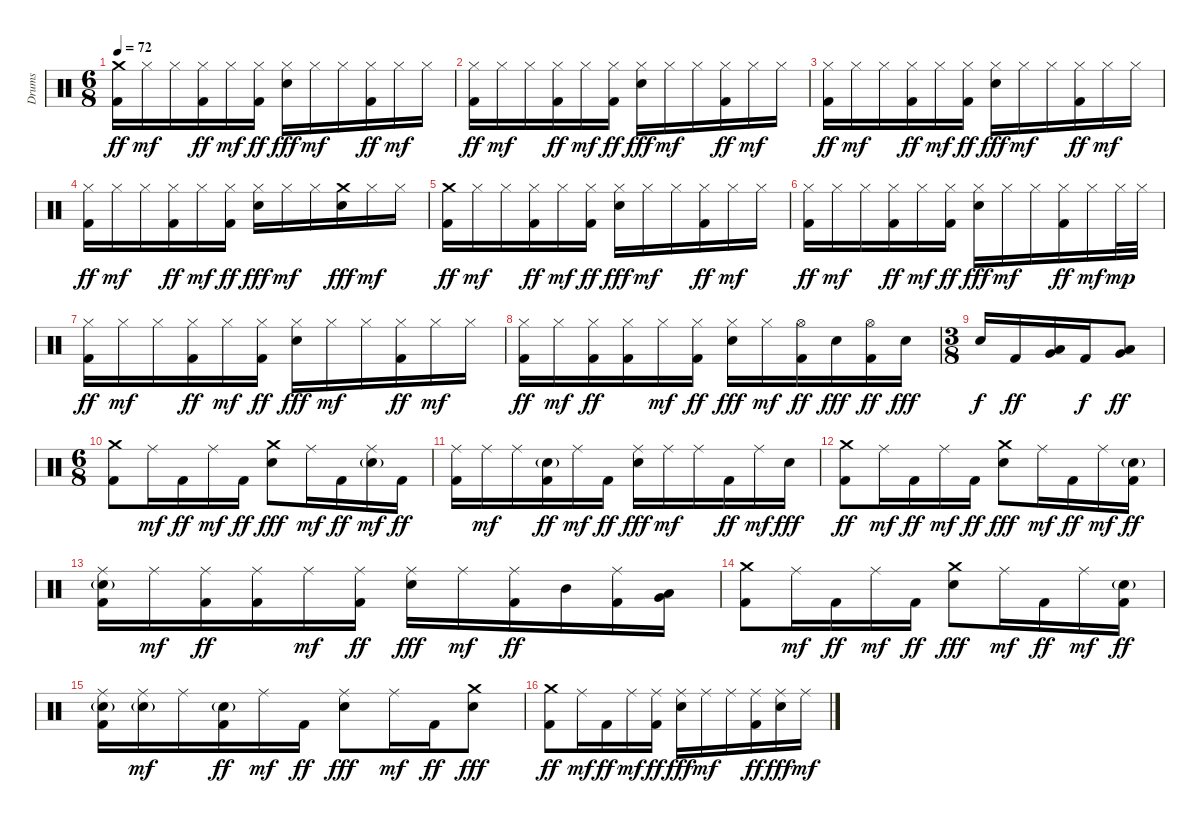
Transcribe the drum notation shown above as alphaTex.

\track ("Drums" "Drums") {instrument percussion}
\staff {score}
\articulation defaults
\ts (6 8)
\tempo 72
\clef neutral
\ks c
("Crash medium (hit)" "Kick (hit) 2").16{dy ff} "Hi-Hat (closed)".16{dy mf} "Hi-Hat (closed)".16 ("Hi-Hat (closed)" "Kick (hit) 2").16{dy ff} "Hi-Hat (closed)".16{dy mf} ("Hi-Hat (closed)" "Kick (hit) 2").16{dy ff} ("Hi-Hat (closed)" "Snare (hit) 2").16{dy fff} "Hi-Hat (closed)".16{dy mf} "Hi-Hat (closed)".16 ("Hi-Hat (closed)" "Kick (hit) 2").16{dy ff} "Hi-Hat (closed)".16{dy mf} "Hi-Hat (closed)".16 |
("Hi-Hat (closed)" "Kick (hit) 2").16{dy ff} "Hi-Hat (closed)".16{dy mf} "Hi-Hat (closed)".16 ("Hi-Hat (closed)" "Kick (hit) 2").16{dy ff} "Hi-Hat (closed)".16{dy mf} ("Hi-Hat (closed)" "Kick (hit) 2").16{dy ff} ("Hi-Hat (closed)" "Snare (hit) 2").16{dy fff} "Hi-Hat (closed)".16{dy mf} "Hi-Hat (closed)".16 ("Hi-Hat (closed)" "Kick (hit) 2").16{dy ff} "Hi-Hat (closed)".16{dy mf} "Hi-Hat (closed)".16 |
("Hi-Hat (closed)" "Kick (hit) 2").16{dy ff} "Hi-Hat (closed)".16{dy mf} "Hi-Hat (closed)".16 ("Hi-Hat (closed)" "Kick (hit) 2").16{dy ff} "Hi-Hat (closed)".16{dy mf} ("Hi-Hat (closed)" "Kick (hit) 2").16{dy ff} ("Hi-Hat (closed)" "Snare (hit) 2").16{dy fff} "Hi-Hat (closed)".16{dy mf} "Hi-Hat (closed)".16 ("Hi-Hat (closed)" "Kick (hit) 2").16{dy ff} "Hi-Hat (closed)".16{dy mf} "Hi-Hat (closed)".16 |
("Hi-Hat (closed)" "Kick (hit) 2").16{dy ff} "Hi-Hat (closed)".16{dy mf} "Hi-Hat (closed)".16 ("Hi-Hat (closed)" "Kick (hit) 2").16{dy ff} "Hi-Hat (closed)".16{dy mf} ("Hi-Hat (closed)" "Kick (hit) 2").16{dy ff} ("Hi-Hat (closed)" "Snare (hit) 2").16{dy fff} "Hi-Hat (closed)".16{dy mf} "Hi-Hat (closed)".16 ("Crash medium (hit)" "Snare (hit) 2").16{dy fff} "Hi-Hat (closed)".16{dy mf} "Hi-Hat (closed)".16 |
("Crash medium (hit)" "Kick (hit) 2").16{dy ff} "Hi-Hat (closed)".16{dy mf} "Hi-Hat (closed)".16 ("Hi-Hat (closed)" "Kick (hit) 2").16{dy ff} "Hi-Hat (closed)".16{dy mf} ("Hi-Hat (closed)" "Kick (hit) 2").16{dy ff} ("Hi-Hat (closed)" "Snare (hit) 2").16{dy fff} "Hi-Hat (closed)".16{dy mf} "Hi-Hat (closed)".16 ("Hi-Hat (closed)" "Kick (hit) 2").16{dy ff} "Hi-Hat (closed)".16{dy mf} "Hi-Hat (closed)".16 |
("Hi-Hat (closed)" "Kick (hit) 2").16{dy ff} "Hi-Hat (closed)".16{dy mf} "Hi-Hat (closed)".16 ("Hi-Hat (closed)" "Kick (hit) 2").16{dy ff} "Hi-Hat (closed)".16{dy mf} ("Hi-Hat (closed)" "Kick (hit) 2").16{dy ff} ("Hi-Hat (closed)" "Snare (hit) 2").16{dy fff} "Hi-Hat (closed)".16{dy mf} "Hi-Hat (closed)".16 ("Hi-Hat (closed)" "Kick (hit) 2").16{dy ff} "Hi-Hat (closed)".16{dy mf} "Hi-Hat (closed)".32{dy mp} "Hi-Hat (closed)".32 |
("Hi-Hat (closed)" "Kick (hit) 2").16{dy ff} "Hi-Hat (closed)".16{dy mf} "Hi-Hat (closed)".16 ("Hi-Hat (closed)" "Kick (hit) 2").16{dy ff} "Hi-Hat (closed)".16{dy mf} ("Hi-Hat (closed)" "Kick (hit) 2").16{dy ff} ("Hi-Hat (closed)" "Snare (hit) 2").16{dy fff} "Hi-Hat (closed)".16{dy mf} "Hi-Hat (closed)".16 ("Hi-Hat (closed)" "Kick (hit) 2").16{dy ff} "Hi-Hat (closed)".16{dy mf} "Hi-Hat (closed)".16 |
("Hi-Hat (closed)" "Kick (hit) 2").16{dy ff} "Hi-Hat (closed)".16{dy mf} ("Hi-Hat (closed)" "Kick (hit) 2").16{dy ff} ("Hi-Hat (closed)" "Kick (hit) 2").16 "Hi-Hat (closed)".16{dy mf} ("Hi-Hat (closed)" "Kick (hit) 2").16{dy ff} ("Hi-Hat (closed)" "Snare (hit) 2").16{dy fff} "Hi-Hat (closed)".16{dy mf} ("Hi-Hat (open)" "Kick (hit) 2").16{dy ff} "Snare (hit) 2".16{dy fff} ("Hi-Hat (open)" "Kick (hit) 2").16{dy ff} "Snare (hit) 2".16{dy fff} |
\ts (3 8)
"Snare (hit) 2".16{dy f} "Kick (hit) 2".16{dy ff} ("Low Tom (hit)" "Very Low Tom (hit)").16 "Kick (hit) 2".16{dy f} ("Low Tom (hit)" "Very Low Tom (hit)").8{dy ff} |
\ts (6 8)
("Crash medium (hit)" "Kick (hit) 2").8 "Ride (middle)".16{dy mf} "Kick (hit) 2".16{dy ff} "Ride (middle)".16{dy mf} "Kick (hit) 2".16{dy ff} ("Crash medium (hit)" "Snare (hit) 2").8{dy fff} "Ride (middle)".16{dy mf} "Kick (hit) 2".16{dy ff} ("Ride (middle)" "Snare (hit) 2"{g}).16{dy mf} "Kick (hit) 2".16{dy ff} |
("Ride (middle)" "Kick (hit) 2").16 "Ride (middle)".16{dy mf} "Ride (middle)".16 ("Snare (hit) 2"{g} "Kick (hit) 2").16{dy ff} "Ride (middle)".16{dy mf} "Kick (hit) 2".16{dy ff} ("Ride (middle)" "Snare (hit) 2").16{dy fff} "Ride (middle)".16{dy mf} "Ride (middle)".16 "Kick (hit) 2".16{dy ff} "Ride (middle)".16{dy mf} "Snare (hit) 2".16{dy fff} |
("Crash medium (hit)" "Kick (hit) 2").8{dy ff} "Ride (middle)".16{dy mf} "Kick (hit) 2".16{dy ff} "Ride (middle)".16{dy mf} "Kick (hit) 2".16{dy ff} ("Crash medium (hit)" "Snare (hit) 2").8{dy fff} "Ride (middle)".16{dy mf} "Kick (hit) 2".16{dy ff} "Ride (middle)".16{dy mf} ("Snare (hit) 2"{g} "Kick (hit) 2").16{dy ff} |
("Ride (middle)" "Snare (hit) 2"{g} "Kick (hit) 2").16 "Ride (middle)".16{dy mf} ("Ride (middle)" "Kick (hit) 2").16{dy ff} ("Ride (middle)" "Kick (hit) 2").16 "Ride (middle)".16{dy mf} ("Ride (middle)" "Kick (hit) 2").16{dy ff} ("Ride (middle)" "Snare (hit) 2").16{dy fff} "Ride (middle)".16{dy mf} ("Ride (middle)" "Kick (hit) 2").16{dy ff} "Mid Tom (hit)".16 ("Ride (middle)" "Kick (hit) 2").16 ("Low Tom (hit)" "Very Low Tom (hit)").16 |
("Crash medium (hit)" "Kick (hit) 2").8 "Ride (middle)".16{dy mf} "Kick (hit) 2".16{dy ff} "Ride (middle)".16{dy mf} "Kick (hit) 2".16{dy ff} ("Crash medium (hit)" "Snare (hit) 2").8{dy fff} "Ride (middle)".16{dy mf} "Kick (hit) 2".16{dy ff} "Ride (middle)".16{dy mf} ("Snare (hit) 2"{g} "Kick (hit) 2").16{dy ff} |
("Ride (middle)" "Snare (hit) 2"{g} "Kick (hit) 2").16 ("Ride (middle)" "Snare (hit) 2"{g}).16{dy mf} "Ride (middle)".16 ("Snare (hit) 2"{g} "Kick (hit) 2").16{dy ff} "Ride (middle)".16{dy mf} "Kick (hit) 2".16{dy ff} ("Ride (middle)" "Snare (hit) 2").8{dy fff} "Ride (middle)".16{dy mf} "Kick (hit) 2".16{dy ff} ("Crash medium (hit)" "Snare (hit) 2").8{dy fff} |
("Crash medium (hit)" "Kick (hit) 2").8{dy ff} "Ride (middle)".16{dy mf} "Kick (hit) 2".16{dy ff} "Ride (middle)".16{dy mf} ("Ride (middle)" "Kick (hit) 2").16{dy ff} ("Ride (middle)" "Snare (hit) 2").16{dy fff} "Ride (middle)".16{dy mf} "Ride (middle)".16 ("Ride (middle)" "Kick (hit) 2").16{dy ff} ("Ride (middle)" "Snare (hit) 2").16{dy fff} "Ride (middle)".16{dy mf}
